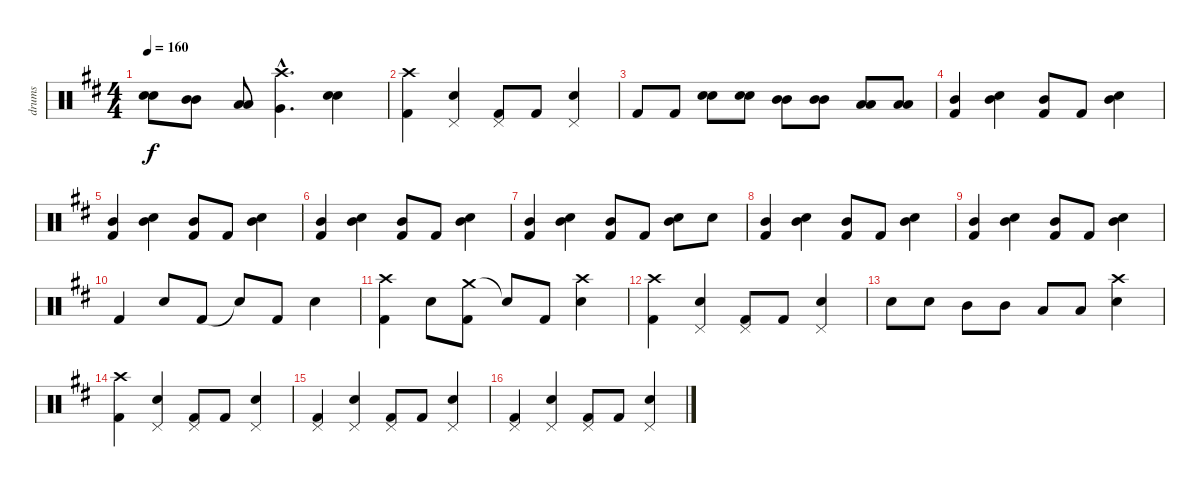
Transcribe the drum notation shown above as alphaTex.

\track ("drums" "drums") {instrument percussion}
\staff {score}
\articulation defaults
\ts (4 4)
\tempo 160
\clef neutral
\ks bminor
("Snare (hit) 2" "Snare (hit) 2").8{dy f} ("Mid Tom (hit)" "Mid Tom (hit)").8 ("Low Tom (hit)" "Low Tom (hit)").8 ("Crash high (hit)"{hac} "Very Low Tom (hit)"{hac}).4{d} ("Snare (hit) 2" "Snare (hit) 2").4 |
("Crash high (hit)" "Kick (hit) 2").4 ("Pedal Hi-Hat (hit)" "Snare (hit) 2").4 ("Pedal Hi-Hat (hit)" "Kick (hit) 2").8 "Kick (hit) 2".8 ("Pedal Hi-Hat (hit)" "Snare (hit) 2").4 |
"Kick (hit) 2".8 "Kick (hit) 2".8 ("Snare (hit) 2" "Snare (hit) 2").8 ("Snare (hit) 2" "Snare (hit) 2").8 ("Mid Tom (hit)" "Mid Tom (hit)").8 ("Mid Tom (hit)" "Mid Tom (hit)").8 ("Low Tom (hit)" "Low Tom (hit)").8 ("Low Tom (hit)" "Low Tom (hit)").8 |
("Mid Tom (hit)" "Kick (hit) 2").4 ("Mid Tom (hit)" "Snare (hit) 2").4 ("Mid Tom (hit)" "Kick (hit) 2").8 "Kick (hit) 2".8 ("Mid Tom (hit)" "Snare (hit) 2").4 |
("Mid Tom (hit)" "Kick (hit) 2").4 ("Mid Tom (hit)" "Snare (hit) 2").4 ("Mid Tom (hit)" "Kick (hit) 2").8 "Kick (hit) 2".8 ("Mid Tom (hit)" "Snare (hit) 2").4 |
("Mid Tom (hit)" "Kick (hit) 2").4 ("Mid Tom (hit)" "Snare (hit) 2").4 ("Mid Tom (hit)" "Kick (hit) 2").8 "Kick (hit) 2".8 ("Mid Tom (hit)" "Snare (hit) 2").4 |
("Mid Tom (hit)" "Kick (hit) 2").4 ("Mid Tom (hit)" "Snare (hit) 2").4 ("Mid Tom (hit)" "Kick (hit) 2").8 "Kick (hit) 2".8 ("Mid Tom (hit)" "Snare (hit) 2").8 "Snare (hit) 2".8 |
("Mid Tom (hit)" "Kick (hit) 2").4 ("Mid Tom (hit)" "Snare (hit) 2").4 ("Mid Tom (hit)" "Kick (hit) 2").8 "Kick (hit) 2".8 ("Mid Tom (hit)" "Snare (hit) 2").4 |
("Mid Tom (hit)" "Kick (hit) 2").4 ("Mid Tom (hit)" "Snare (hit) 2").4 ("Mid Tom (hit)" "Kick (hit) 2").8 "Kick (hit) 2".8 ("Mid Tom (hit)" "Snare (hit) 2").4 |
"Kick (hit) 2".4 "Snare (hit) 2".8 "Kick (hit) 2".8 "Snare (hit)"{t}.8 "Kick (hit) 2".8 "Snare (hit) 2".4 |
("Crash high (hit)" "Kick (hit) 2").4 "Snare (hit) 2".8 ("Crash medium (hit)" "Kick (hit) 2").8 "Snare (hit)"{t}.8 "Kick (hit) 2".8 ("Crash high (hit)" "Snare (hit) 2").4 |
("Crash high (hit)" "Kick (hit) 2").4 ("Pedal Hi-Hat (hit)" "Snare (hit) 2").4 ("Pedal Hi-Hat (hit)" "Kick (hit) 2").8 "Kick (hit) 2".8 ("Pedal Hi-Hat (hit)" "Snare (hit) 2").4 |
"Snare (hit) 2".8 "Snare (hit) 2".8 "Mid Tom (hit)".8 "Mid Tom (hit)".8 "Low Tom (hit)".8 "Low Tom (hit)".8 ("Crash high (hit)" "Snare (hit) 2").4 |
("Crash high (hit)" "Kick (hit) 2").4 ("Pedal Hi-Hat (hit)" "Snare (hit) 2").4 ("Pedal Hi-Hat (hit)" "Kick (hit) 2").8 "Kick (hit) 2".8 ("Pedal Hi-Hat (hit)" "Snare (hit) 2").4 |
("Pedal Hi-Hat (hit)" "Kick (hit) 2").4 ("Pedal Hi-Hat (hit)" "Snare (hit) 2").4 ("Pedal Hi-Hat (hit)" "Kick (hit) 2").8 "Kick (hit) 2".8 ("Pedal Hi-Hat (hit)" "Snare (hit) 2").4 |
("Pedal Hi-Hat (hit)" "Kick (hit) 2").4 ("Pedal Hi-Hat (hit)" "Snare (hit) 2").4 ("Pedal Hi-Hat (hit)" "Kick (hit) 2").8 "Kick (hit) 2".8 ("Pedal Hi-Hat (hit)" "Snare (hit) 2").4
